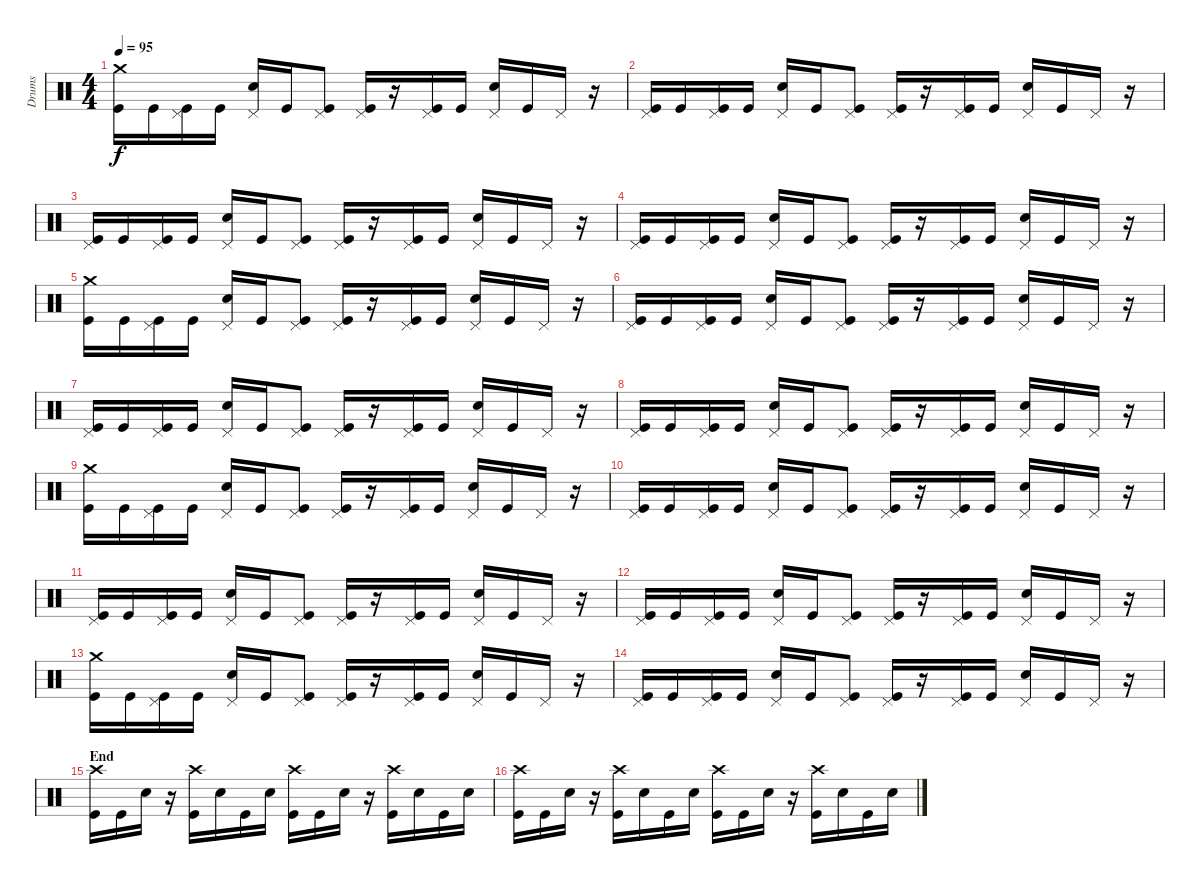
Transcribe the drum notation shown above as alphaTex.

\track ("Drums" "Drums") {instrument percussion}
\staff {score}
\articulation defaults
\ts (4 4)
\tempo 95
\clef neutral
\ks c
("Crash medium (hit)" "Kick (hit)").16{dy f} "Kick (hit)".16 ("Pedal Hi-Hat (hit)" "Kick (hit)").16 "Kick (hit)".16 ("Pedal Hi-Hat (hit)" "Snare (hit) 2").16 "Kick (hit)".16 ("Pedal Hi-Hat (hit)" "Kick (hit)").8 ("Pedal Hi-Hat (hit)" "Kick (hit)").16 r.16 ("Pedal Hi-Hat (hit)" "Kick (hit)").16 "Kick (hit)".16 ("Pedal Hi-Hat (hit)" "Snare (hit) 2").16 "Kick (hit)".16 "Pedal Hi-Hat (hit)".16 r.16 |
("Pedal Hi-Hat (hit)" "Kick (hit)").16 "Kick (hit)".16 ("Pedal Hi-Hat (hit)" "Kick (hit)").16 "Kick (hit)".16 ("Pedal Hi-Hat (hit)" "Snare (hit) 2").16 "Kick (hit)".16 ("Pedal Hi-Hat (hit)" "Kick (hit)").8 ("Pedal Hi-Hat (hit)" "Kick (hit)").16 r.16 ("Pedal Hi-Hat (hit)" "Kick (hit)").16 "Kick (hit)".16 ("Pedal Hi-Hat (hit)" "Snare (hit) 2").16 "Kick (hit)".16 "Pedal Hi-Hat (hit)".16 r.16 |
("Pedal Hi-Hat (hit)" "Kick (hit)").16 "Kick (hit)".16 ("Pedal Hi-Hat (hit)" "Kick (hit)").16 "Kick (hit)".16 ("Pedal Hi-Hat (hit)" "Snare (hit) 2").16 "Kick (hit)".16 ("Pedal Hi-Hat (hit)" "Kick (hit)").8 ("Pedal Hi-Hat (hit)" "Kick (hit)").16 r.16 ("Pedal Hi-Hat (hit)" "Kick (hit)").16 "Kick (hit)".16 ("Pedal Hi-Hat (hit)" "Snare (hit) 2").16 "Kick (hit)".16 "Pedal Hi-Hat (hit)".16 r.16 |
("Pedal Hi-Hat (hit)" "Kick (hit)").16 "Kick (hit)".16 ("Pedal Hi-Hat (hit)" "Kick (hit)").16 "Kick (hit)".16 ("Pedal Hi-Hat (hit)" "Snare (hit) 2").16 "Kick (hit)".16 ("Pedal Hi-Hat (hit)" "Kick (hit)").8 ("Pedal Hi-Hat (hit)" "Kick (hit)").16 r.16 ("Pedal Hi-Hat (hit)" "Kick (hit)").16 "Kick (hit)".16 ("Pedal Hi-Hat (hit)" "Snare (hit) 2").16 "Kick (hit)".16 "Pedal Hi-Hat (hit)".16 r.16 |
("Crash medium (hit)" "Kick (hit)").16 "Kick (hit)".16 ("Pedal Hi-Hat (hit)" "Kick (hit)").16 "Kick (hit)".16 ("Pedal Hi-Hat (hit)" "Snare (hit) 2").16 "Kick (hit)".16 ("Pedal Hi-Hat (hit)" "Kick (hit)").8 ("Pedal Hi-Hat (hit)" "Kick (hit)").16 r.16 ("Pedal Hi-Hat (hit)" "Kick (hit)").16 "Kick (hit)".16 ("Pedal Hi-Hat (hit)" "Snare (hit) 2").16 "Kick (hit)".16 "Pedal Hi-Hat (hit)".16 r.16 |
("Pedal Hi-Hat (hit)" "Kick (hit)").16 "Kick (hit)".16 ("Pedal Hi-Hat (hit)" "Kick (hit)").16 "Kick (hit)".16 ("Pedal Hi-Hat (hit)" "Snare (hit) 2").16 "Kick (hit)".16 ("Pedal Hi-Hat (hit)" "Kick (hit)").8 ("Pedal Hi-Hat (hit)" "Kick (hit)").16 r.16 ("Pedal Hi-Hat (hit)" "Kick (hit)").16 "Kick (hit)".16 ("Pedal Hi-Hat (hit)" "Snare (hit) 2").16 "Kick (hit)".16 "Pedal Hi-Hat (hit)".16 r.16 |
("Pedal Hi-Hat (hit)" "Kick (hit)").16 "Kick (hit)".16 ("Pedal Hi-Hat (hit)" "Kick (hit)").16 "Kick (hit)".16 ("Pedal Hi-Hat (hit)" "Snare (hit) 2").16 "Kick (hit)".16 ("Pedal Hi-Hat (hit)" "Kick (hit)").8 ("Pedal Hi-Hat (hit)" "Kick (hit)").16 r.16 ("Pedal Hi-Hat (hit)" "Kick (hit)").16 "Kick (hit)".16 ("Pedal Hi-Hat (hit)" "Snare (hit) 2").16 "Kick (hit)".16 "Pedal Hi-Hat (hit)".16 r.16 |
("Pedal Hi-Hat (hit)" "Kick (hit)").16 "Kick (hit)".16 ("Pedal Hi-Hat (hit)" "Kick (hit)").16 "Kick (hit)".16 ("Pedal Hi-Hat (hit)" "Snare (hit) 2").16 "Kick (hit)".16 ("Pedal Hi-Hat (hit)" "Kick (hit)").8 ("Pedal Hi-Hat (hit)" "Kick (hit)").16 r.16 ("Pedal Hi-Hat (hit)" "Kick (hit)").16 "Kick (hit)".16 ("Pedal Hi-Hat (hit)" "Snare (hit) 2").16 "Kick (hit)".16 "Pedal Hi-Hat (hit)".16 r.16 |
("Crash medium (hit)" "Kick (hit)").16 "Kick (hit)".16 ("Pedal Hi-Hat (hit)" "Kick (hit)").16 "Kick (hit)".16 ("Pedal Hi-Hat (hit)" "Snare (hit) 2").16 "Kick (hit)".16 ("Pedal Hi-Hat (hit)" "Kick (hit)").8 ("Pedal Hi-Hat (hit)" "Kick (hit)").16 r.16 ("Pedal Hi-Hat (hit)" "Kick (hit)").16 "Kick (hit)".16 ("Pedal Hi-Hat (hit)" "Snare (hit) 2").16 "Kick (hit)".16 "Pedal Hi-Hat (hit)".16 r.16 |
("Pedal Hi-Hat (hit)" "Kick (hit)").16 "Kick (hit)".16 ("Pedal Hi-Hat (hit)" "Kick (hit)").16 "Kick (hit)".16 ("Pedal Hi-Hat (hit)" "Snare (hit) 2").16 "Kick (hit)".16 ("Pedal Hi-Hat (hit)" "Kick (hit)").8 ("Pedal Hi-Hat (hit)" "Kick (hit)").16 r.16 ("Pedal Hi-Hat (hit)" "Kick (hit)").16 "Kick (hit)".16 ("Pedal Hi-Hat (hit)" "Snare (hit) 2").16 "Kick (hit)".16 "Pedal Hi-Hat (hit)".16 r.16 |
("Pedal Hi-Hat (hit)" "Kick (hit)").16 "Kick (hit)".16 ("Pedal Hi-Hat (hit)" "Kick (hit)").16 "Kick (hit)".16 ("Pedal Hi-Hat (hit)" "Snare (hit) 2").16 "Kick (hit)".16 ("Pedal Hi-Hat (hit)" "Kick (hit)").8 ("Pedal Hi-Hat (hit)" "Kick (hit)").16 r.16 ("Pedal Hi-Hat (hit)" "Kick (hit)").16 "Kick (hit)".16 ("Pedal Hi-Hat (hit)" "Snare (hit) 2").16 "Kick (hit)".16 "Pedal Hi-Hat (hit)".16 r.16 |
("Pedal Hi-Hat (hit)" "Kick (hit)").16 "Kick (hit)".16 ("Pedal Hi-Hat (hit)" "Kick (hit)").16 "Kick (hit)".16 ("Pedal Hi-Hat (hit)" "Snare (hit) 2").16 "Kick (hit)".16 ("Pedal Hi-Hat (hit)" "Kick (hit)").8 ("Pedal Hi-Hat (hit)" "Kick (hit)").16 r.16 ("Pedal Hi-Hat (hit)" "Kick (hit)").16 "Kick (hit)".16 ("Pedal Hi-Hat (hit)" "Snare (hit) 2").16 "Kick (hit)".16 "Pedal Hi-Hat (hit)".16 r.16 |
("Crash medium (hit)" "Kick (hit)").16 "Kick (hit)".16 ("Pedal Hi-Hat (hit)" "Kick (hit)").16 "Kick (hit)".16 ("Pedal Hi-Hat (hit)" "Snare (hit) 2").16 "Kick (hit)".16 ("Pedal Hi-Hat (hit)" "Kick (hit)").8 ("Pedal Hi-Hat (hit)" "Kick (hit)").16 r.16 ("Pedal Hi-Hat (hit)" "Kick (hit)").16 "Kick (hit)".16 ("Pedal Hi-Hat (hit)" "Snare (hit) 2").16 "Kick (hit)".16 "Pedal Hi-Hat (hit)".16 r.16 |
("Pedal Hi-Hat (hit)" "Kick (hit)").16 "Kick (hit)".16 ("Pedal Hi-Hat (hit)" "Kick (hit)").16 "Kick (hit)".16 ("Pedal Hi-Hat (hit)" "Snare (hit) 2").16 "Kick (hit)".16 ("Pedal Hi-Hat (hit)" "Kick (hit)").8 ("Pedal Hi-Hat (hit)" "Kick (hit)").16 r.16 ("Pedal Hi-Hat (hit)" "Kick (hit)").16 "Kick (hit)".16 ("Pedal Hi-Hat (hit)" "Snare (hit) 2").16 "Kick (hit)".16 "Pedal Hi-Hat (hit)".16 r.16 |
\section ("" "End")
("Crash high (hit)" "Kick (hit)").16 "Kick (hit)".16 "Snare (hit) 2".16 r.16 ("Crash high (hit)" "Kick (hit)").16 "Snare (hit) 2".16 "Kick (hit)".16 "Snare (hit) 2".16 ("Crash high (hit)" "Kick (hit)").16 "Kick (hit)".16 "Snare (hit) 2".16 r.16 ("Crash high (hit)" "Kick (hit)").16 "Snare (hit) 2".16 "Kick (hit)".16 "Snare (hit) 2".16 |
("Crash high (hit)" "Kick (hit)").16 "Kick (hit)".16 "Snare (hit) 2".16 r.16 ("Crash high (hit)" "Kick (hit)").16 "Snare (hit) 2".16 "Kick (hit)".16 "Snare (hit) 2".16 ("Crash high (hit)" "Kick (hit)").16 "Kick (hit)".16 "Snare (hit) 2".16 r.16 ("Crash high (hit)" "Kick (hit)").16 "Snare (hit) 2".16 "Kick (hit)".16 "Snare (hit) 2".16
